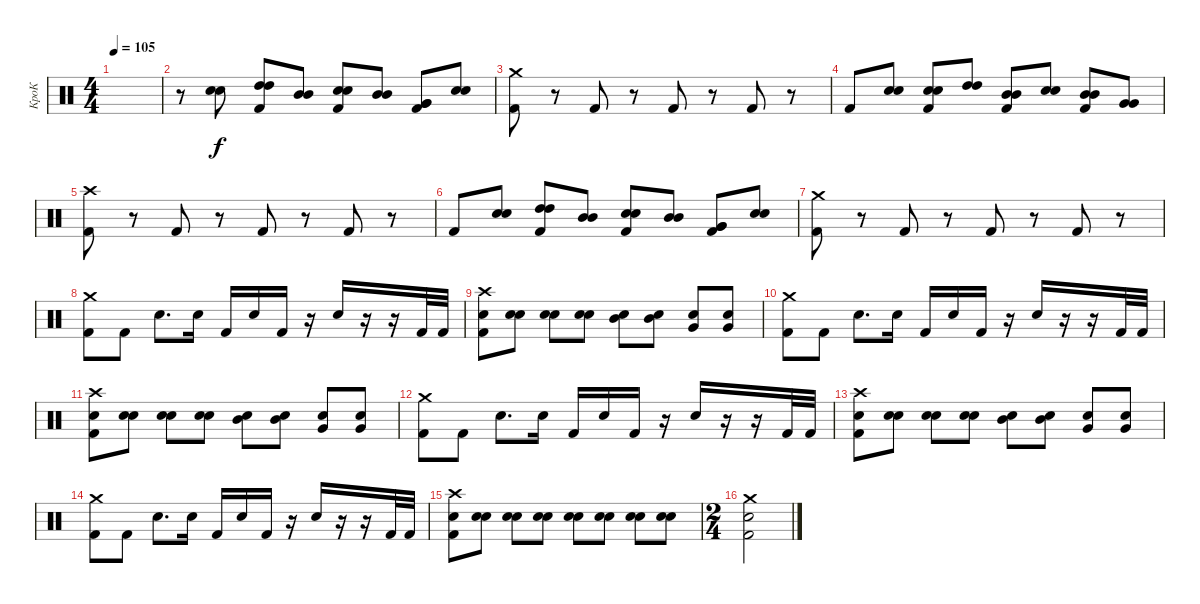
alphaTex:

\track ("КроК" "КроК") {instrument percussion}
\staff {score}
\articulation defaults
\ts (4 4)
\tempo 105
\clef neutral
\ks c
|
r.8 ("Electric Snare (hit)" "Electric Snare (hit)").8 ("High Tom (hit)" "High Tom (hit)" "Kick (hit) 2").8 ("Mid Tom (hit)" "Mid Tom (hit)").8 ("Electric Snare (hit)" "Electric Snare (hit)" "Kick (hit) 2").8 ("Mid Tom (hit)" "Mid Tom (hit)").8 ("Very Low Tom (hit)" "Very Low Tom (hit)" "Kick (hit) 2").8 ("Electric Snare (hit)" "Electric Snare (hit)").8 |
("Crash medium (hit)" "Kick (hit) 2").8 r.8 "Kick (hit) 2".8 r.8 "Kick (hit) 2".8 r.8 "Kick (hit) 2".8 r.8 |
"Kick (hit) 2".8 ("Electric Snare (hit)" "Electric Snare (hit)").8 ("Electric Snare (hit)" "Electric Snare (hit)" "Kick (hit) 2").8 ("High Tom (hit)" "High Tom (hit)").8 ("Mid Tom (hit)" "Mid Tom (hit)" "Kick (hit) 2").8 ("Electric Snare (hit)" "Electric Snare (hit)").8 ("Mid Tom (hit)" "Mid Tom (hit)" "Kick (hit) 2").8 ("Very Low Tom (hit)" "Very Low Tom (hit)").8 |
("Crash high (hit)" "Kick (hit) 2").8 r.8 "Kick (hit) 2".8 r.8 "Kick (hit) 2".8 r.8 "Kick (hit) 2".8 r.8 |
"Kick (hit) 2".8 ("Electric Snare (hit)" "Electric Snare (hit)").8 ("High Tom (hit)" "High Tom (hit)" "Kick (hit) 2").8 ("Mid Tom (hit)" "Mid Tom (hit)").8 ("Electric Snare (hit)" "Electric Snare (hit)" "Kick (hit) 2").8 ("Mid Tom (hit)" "Mid Tom (hit)").8 ("Very Low Tom (hit)" "Very Low Tom (hit)" "Kick (hit) 2").8 ("Electric Snare (hit)" "Electric Snare (hit)").8 |
("Crash medium (hit)" "Kick (hit) 2").8 r.8 "Kick (hit) 2".8 r.8 "Kick (hit) 2".8 r.8 "Kick (hit) 2".8 r.8 |
("Crash medium (hit)" "Kick (hit) 2").8 "Kick (hit) 2".8 "Electric Snare (hit)".8{d} "Electric Snare (hit)".16 "Kick (hit) 2".16 "Electric Snare (hit)".16 "Kick (hit) 2".16 r.16 "Electric Snare (hit)".16 r.16 r.16 "Kick (hit) 2".32 "Kick (hit) 2".32 |
("Crash high (hit)" "Electric Snare (hit)" "Kick (hit) 2").8 ("Electric Snare (hit)" "Electric Snare (hit)").8 ("Electric Snare (hit)" "Electric Snare (hit)").8 ("Electric Snare (hit)" "Electric Snare (hit)").8 ("Electric Snare (hit)" "Mid Tom (hit)").8 ("Electric Snare (hit)" "Mid Tom (hit)").8 ("Electric Snare (hit)" "Very Low Tom (hit)").8 ("Electric Snare (hit)" "Very Low Tom (hit)").8 |
("Crash medium (hit)" "Kick (hit) 2").8 "Kick (hit) 2".8 "Electric Snare (hit)".8{d} "Electric Snare (hit)".16 "Kick (hit) 2".16 "Electric Snare (hit)".16 "Kick (hit) 2".16 r.16 "Electric Snare (hit)".16 r.16 r.16 "Kick (hit) 2".32 "Kick (hit) 2".32 |
("Crash high (hit)" "Electric Snare (hit)" "Kick (hit) 2").8 ("Electric Snare (hit)" "Electric Snare (hit)").8 ("Electric Snare (hit)" "Electric Snare (hit)").8 ("Electric Snare (hit)" "Electric Snare (hit)").8 ("Electric Snare (hit)" "Mid Tom (hit)").8 ("Electric Snare (hit)" "Mid Tom (hit)").8 ("Electric Snare (hit)" "Very Low Tom (hit)").8 ("Electric Snare (hit)" "Very Low Tom (hit)").8 |
("Crash medium (hit)" "Kick (hit) 2").8 "Kick (hit) 2".8 "Electric Snare (hit)".8{d} "Electric Snare (hit)".16 "Kick (hit) 2".16 "Electric Snare (hit)".16 "Kick (hit) 2".16 r.16 "Electric Snare (hit)".16 r.16 r.16 "Kick (hit) 2".32 "Kick (hit) 2".32 |
("Crash high (hit)" "Electric Snare (hit)" "Kick (hit) 2").8 ("Electric Snare (hit)" "Electric Snare (hit)").8 ("Electric Snare (hit)" "Electric Snare (hit)").8 ("Electric Snare (hit)" "Electric Snare (hit)").8 ("Electric Snare (hit)" "Mid Tom (hit)").8 ("Electric Snare (hit)" "Mid Tom (hit)").8 ("Electric Snare (hit)" "Very Low Tom (hit)").8 ("Electric Snare (hit)" "Very Low Tom (hit)").8 |
("Crash medium (hit)" "Kick (hit) 2").8 "Kick (hit) 2".8 "Electric Snare (hit)".8{d} "Electric Snare (hit)".16 "Kick (hit) 2".16 "Electric Snare (hit)".16 "Kick (hit) 2".16 r.16 "Electric Snare (hit)".16 r.16 r.16 "Kick (hit) 2".32 "Kick (hit) 2".32 |
("Crash high (hit)" "Electric Snare (hit)" "Kick (hit) 2").8 ("Electric Snare (hit)" "Electric Snare (hit)").8 ("Electric Snare (hit)" "Electric Snare (hit)").8 ("Electric Snare (hit)" "Electric Snare (hit)").8 ("Electric Snare (hit)" "Electric Snare (hit)").8 ("Electric Snare (hit)" "Electric Snare (hit)").8 ("Electric Snare (hit)" "Electric Snare (hit)").8 ("Electric Snare (hit)" "Electric Snare (hit)").8 |
\ts (2 4)
("Crash medium (hit)" "Electric Snare (hit)" "Kick (hit) 2").2
